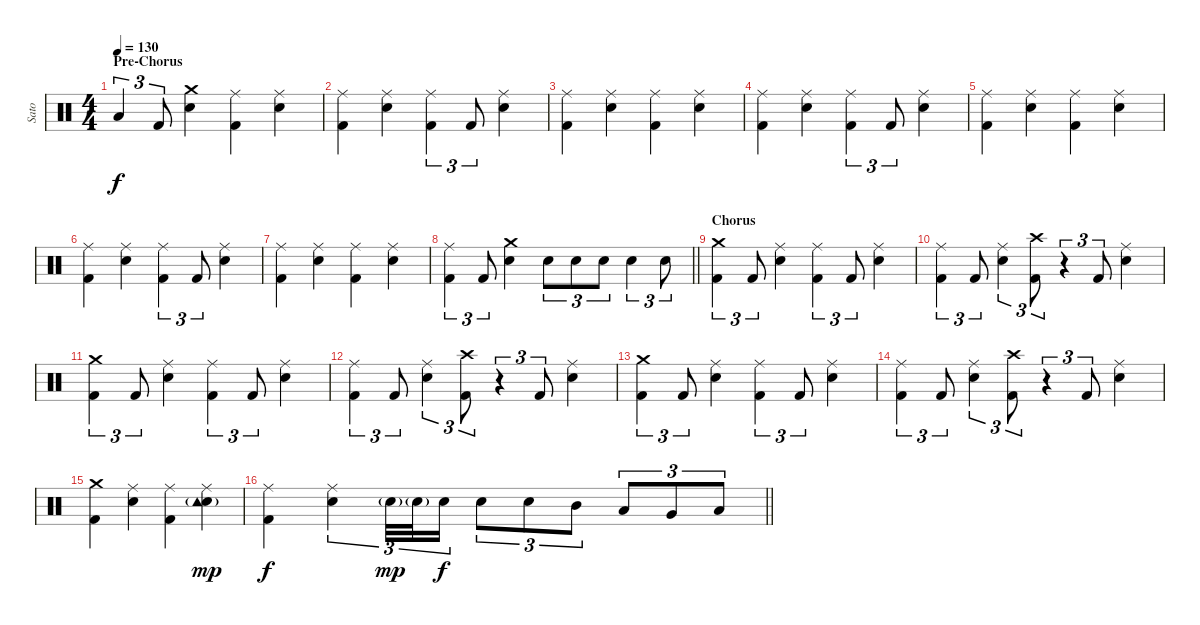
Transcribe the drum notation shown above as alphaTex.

\track ("Sato" "Sato") {instrument percussion}
\staff {score}
\articulation defaults
\ts (4 4)
\section ("" "Pre-Chorus")
\tempo 130
\clef neutral
\ks c "Low Floor Tom (hit)".4{tu (3 2) dy f} "Kick (hit) 2".8{tu (3 2)}
("Crash medium (hit)" "Electric Snare (hit)").4 ("Ride (middle)" "Kick (hit) 2").4 ("Ride (middle)" "Electric Snare (hit)").4 |
("Ride (middle)" "Kick (hit) 2").4 ("Ride (middle)" "Electric Snare (hit)").4 ("Ride (middle)" "Kick (hit) 2").4{tu (3 2)} "Kick (hit) 2".8{tu (3 2)} ("Ride (middle)" "Electric Snare (hit)").4 |
("Ride (middle)" "Kick (hit) 2").4 ("Ride (middle)" "Electric Snare (hit)").4 ("Ride (middle)" "Kick (hit) 2").4 ("Ride (middle)" "Electric Snare (hit)").4 |
("Ride (middle)" "Kick (hit) 2").4 ("Ride (middle)" "Electric Snare (hit)").4 ("Ride (middle)" "Kick (hit) 2").4{tu (3 2)} "Kick (hit) 2".8{tu (3 2)} ("Ride (middle)" "Electric Snare (hit)").4 |
("Ride (middle)" "Kick (hit) 2").4 ("Ride (middle)" "Electric Snare (hit)").4 ("Ride (middle)" "Kick (hit) 2").4 ("Ride (middle)" "Electric Snare (hit)").4 |
("Ride (middle)" "Kick (hit) 2").4 ("Ride (middle)" "Electric Snare (hit)").4 ("Ride (middle)" "Kick (hit) 2").4{tu (3 2)} "Kick (hit) 2".8{tu (3 2)} ("Ride (middle)" "Electric Snare (hit)").4 |
("Ride (middle)" "Kick (hit) 2").4 ("Ride (middle)" "Electric Snare (hit)").4 ("Ride (middle)" "Kick (hit) 2").4 ("Ride (middle)" "Electric Snare (hit)").4 |
\barLineRight lightlight
("Ride (middle)" "Kick (hit) 2").4{tu (3 2)} "Kick (hit) 2".8{tu (3 2)} ("Crash medium (hit)" "Electric Snare (hit)").4 "Electric Snare (hit)".8{tu (3 2)} "Electric Snare (hit)".8{tu (3 2)} "Electric Snare (hit)".8{tu (3 2)} "Electric Snare (hit)".4{tu (3 2)} "Electric Snare (hit)".8{tu (3 2)} |
\section ("" "Chorus")
("Crash medium (hit)" "Kick (hit) 2").4{tu (3 2)} "Kick (hit) 2".8{tu (3 2)} ("Ride (middle)" "Electric Snare (hit)").4 ("Ride (middle)" "Kick (hit) 2").4{tu (3 2)} "Kick (hit) 2".8{tu (3 2)} ("Ride (middle)" "Electric Snare (hit)").4 |
("Ride (middle)" "Kick (hit) 2").4{tu (3 2)} "Kick (hit) 2".8{tu (3 2)} ("Ride (middle)" "Electric Snare (hit)").4{tu (3 2)} ("Crash high (hit)" "Kick (hit) 2").8{tu (3 2)} r.4{tu (3 2)} "Kick (hit) 2".8{tu (3 2)} ("Ride (middle)" "Electric Snare (hit)").4 |
("Crash medium (hit)" "Kick (hit) 2").4{tu (3 2)} "Kick (hit) 2".8{tu (3 2)} ("Ride (middle)" "Electric Snare (hit)").4 ("Ride (middle)" "Kick (hit) 2").4{tu (3 2)} "Kick (hit) 2".8{tu (3 2)} ("Ride (middle)" "Electric Snare (hit)").4 |
("Ride (middle)" "Kick (hit) 2").4{tu (3 2)} "Kick (hit) 2".8{tu (3 2)} ("Ride (middle)" "Electric Snare (hit)").4{tu (3 2)} ("Crash high (hit)" "Kick (hit) 2").8{tu (3 2)} r.4{tu (3 2)} "Kick (hit) 2".8{tu (3 2)} ("Ride (middle)" "Electric Snare (hit)").4 |
("Crash medium (hit)" "Kick (hit) 2").4{tu (3 2)} "Kick (hit) 2".8{tu (3 2)} ("Ride (middle)" "Electric Snare (hit)").4 ("Ride (middle)" "Kick (hit) 2").4{tu (3 2)} "Kick (hit) 2".8{tu (3 2)} ("Ride (middle)" "Electric Snare (hit)").4 |
("Ride (middle)" "Kick (hit) 2").4{tu (3 2)} "Kick (hit) 2".8{tu (3 2)} ("Ride (middle)" "Electric Snare (hit)").4{tu (3 2)} ("Crash high (hit)" "Kick (hit) 2").8{tu (3 2)} r.4{tu (3 2)} "Kick (hit) 2".8{tu (3 2)} ("Ride (middle)" "Electric Snare (hit)").4 |
("Crash medium (hit)" "Kick (hit) 2").4 ("Ride (middle)" "Electric Snare (hit)").4 ("Ride (middle)" "Kick (hit) 2").4 ("Ride (middle)" "Electric Snare (hit)" "Tambourine (hit)"{g}).4{dy mp} |
\barLineRight lightlight
("Ride (middle)" "Kick (hit) 2").4{dy f} ("Ride (middle)" "Electric Snare (hit)").4{tu (3 2)} "Electric Snare (hit)"{g}.32{tu (3 2) dy mp} "Electric Snare (hit)"{g}.32{tu (3 2)} "Electric Snare (hit)".16{tu (3 2) dy f} "Electric Snare (hit)".8{tu (3 2)} "Electric Snare (hit)".8{tu (3 2)} "Mid Tom (hit)".8{tu (3 2)} "Low Tom (hit)".8{tu (3 2)} "Very Low Tom (hit)".8{tu (3 2)} "Low Floor Tom (hit)".8{tu (3 2)}
